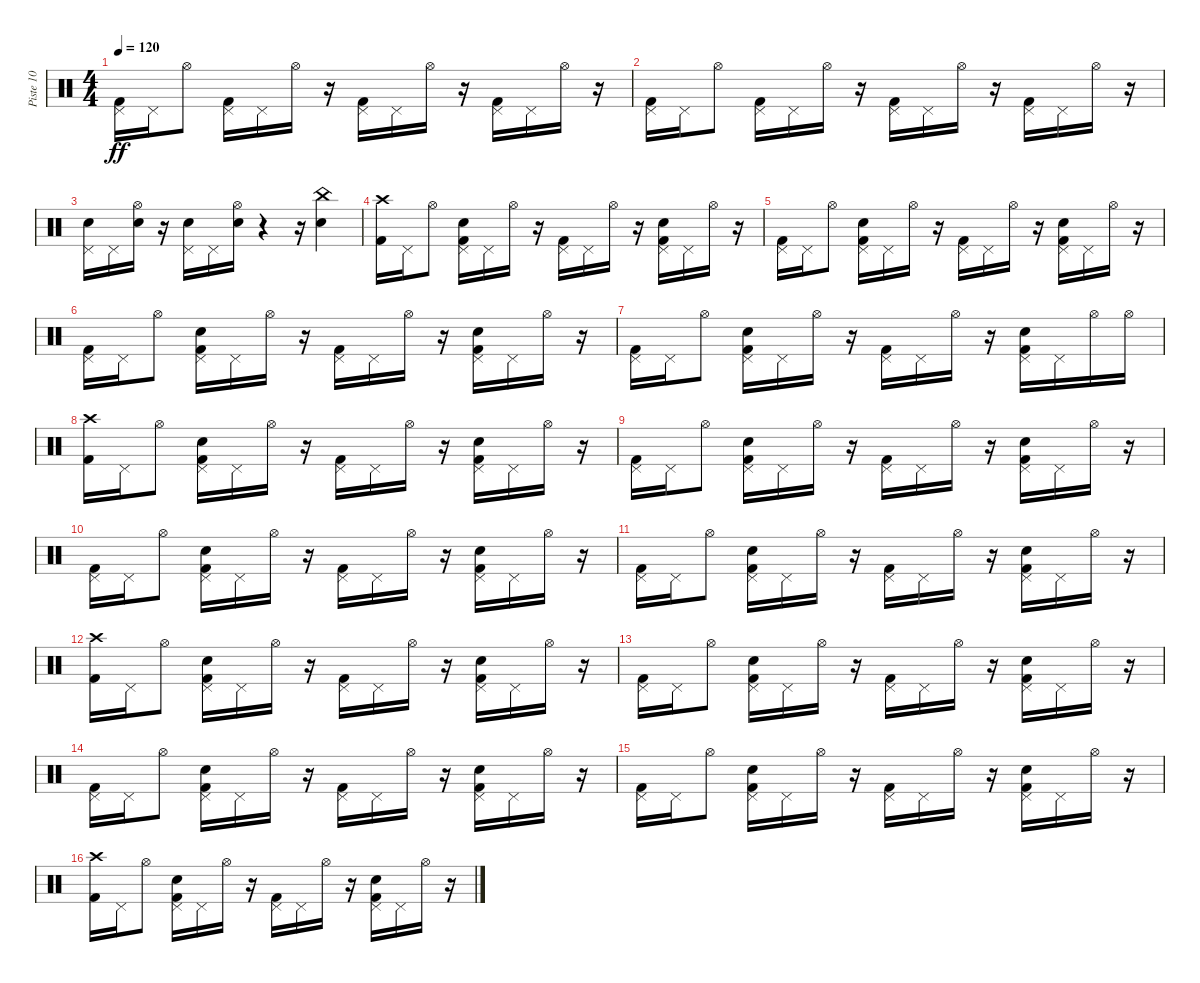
\track ("Piste 10" "Piste 10") {instrument percussion}
\staff {score}
\articulation defaults
\ts (4 4)
\tempo 120
\clef neutral
\ks c
("Kick (hit) 2" "Pedal Hi-Hat (hit)").16{dy ff} "Pedal Hi-Hat (hit)".16 "Hi-Hat (open)".8 ("Kick (hit) 2" "Pedal Hi-Hat (hit)").16 "Pedal Hi-Hat (hit)".16 "Hi-Hat (open)".16 r.16 ("Kick (hit) 2" "Pedal Hi-Hat (hit)").16 "Pedal Hi-Hat (hit)".16 "Hi-Hat (open)".16 r.16 ("Kick (hit) 2" "Pedal Hi-Hat (hit)").16 "Pedal Hi-Hat (hit)".16 "Hi-Hat (open)".16 r.16 |
("Kick (hit) 2" "Pedal Hi-Hat (hit)").16 "Pedal Hi-Hat (hit)".16 "Hi-Hat (open)".8 ("Kick (hit) 2" "Pedal Hi-Hat (hit)").16 "Pedal Hi-Hat (hit)".16 "Hi-Hat (open)".16 r.16 ("Kick (hit) 2" "Pedal Hi-Hat (hit)").16 "Pedal Hi-Hat (hit)".16 "Hi-Hat (open)".16 r.16 ("Kick (hit) 2" "Pedal Hi-Hat (hit)").16 "Pedal Hi-Hat (hit)".16 "Hi-Hat (open)".16 r.16 |
("Snare (hit) 2" "Pedal Hi-Hat (hit)").16 "Pedal Hi-Hat (hit)".16 ("Snare (hit) 2" "Hi-Hat (open)").16 r.16 ("Snare (hit) 2" "Pedal Hi-Hat (hit)").16 "Pedal Hi-Hat (hit)".16 ("Snare (hit) 2" "Hi-Hat (open)").16 r.4 r.16 ("China (hit)" "Snare (hit) 2").4 |
("Crash high (hit)" "Kick (hit) 2").16 "Pedal Hi-Hat (hit)".16 "Hi-Hat (open)".8 ("Snare (hit) 2" "Kick (hit) 2" "Pedal Hi-Hat (hit)").16 "Pedal Hi-Hat (hit)".16 "Hi-Hat (open)".16 r.16 ("Kick (hit) 2" "Pedal Hi-Hat (hit)").16 "Pedal Hi-Hat (hit)".16 "Hi-Hat (open)".16 r.16 ("Kick (hit) 2" "Snare (hit) 2" "Pedal Hi-Hat (hit)").16 "Pedal Hi-Hat (hit)".16 "Hi-Hat (open)".16 r.16 |
("Kick (hit) 2" "Pedal Hi-Hat (hit)").16 "Pedal Hi-Hat (hit)".16 "Hi-Hat (open)".8 ("Kick (hit) 2" "Snare (hit) 2" "Pedal Hi-Hat (hit)").16 "Pedal Hi-Hat (hit)".16 "Hi-Hat (open)".16 r.16 ("Kick (hit) 2" "Pedal Hi-Hat (hit)").16 "Pedal Hi-Hat (hit)".16 "Hi-Hat (open)".16 r.16 ("Kick (hit) 2" "Snare (hit) 2" "Pedal Hi-Hat (hit)").16 "Pedal Hi-Hat (hit)".16 "Hi-Hat (open)".16 r.16 |
("Kick (hit) 2" "Pedal Hi-Hat (hit)").16 "Pedal Hi-Hat (hit)".16 "Hi-Hat (open)".8 ("Kick (hit) 2" "Snare (hit) 2" "Pedal Hi-Hat (hit)").16 "Pedal Hi-Hat (hit)".16 "Hi-Hat (open)".16 r.16 ("Kick (hit) 2" "Pedal Hi-Hat (hit)").16 "Pedal Hi-Hat (hit)".16 "Hi-Hat (open)".16 r.16 ("Kick (hit) 2" "Snare (hit) 2" "Pedal Hi-Hat (hit)").16 "Pedal Hi-Hat (hit)".16 "Hi-Hat (open)".16 r.16 |
("Kick (hit) 2" "Pedal Hi-Hat (hit)").16 "Pedal Hi-Hat (hit)".16 "Hi-Hat (open)".8 ("Kick (hit) 2" "Snare (hit) 2" "Pedal Hi-Hat (hit)").16 "Pedal Hi-Hat (hit)".16 "Hi-Hat (open)".16 r.16 ("Kick (hit) 2" "Pedal Hi-Hat (hit)").16 "Pedal Hi-Hat (hit)".16 "Hi-Hat (open)".16 r.16 ("Kick (hit) 2" "Snare (hit) 2" "Pedal Hi-Hat (hit)").16 "Pedal Hi-Hat (hit)".16 "Hi-Hat (open)".16 "Hi-Hat (open)".16 |
("Crash high (hit)" "Kick (hit) 2").16 "Pedal Hi-Hat (hit)".16 "Hi-Hat (open)".8 ("Kick (hit) 2" "Snare (hit) 2" "Pedal Hi-Hat (hit)").16 "Pedal Hi-Hat (hit)".16 "Hi-Hat (open)".16 r.16 ("Kick (hit) 2" "Pedal Hi-Hat (hit)").16 "Pedal Hi-Hat (hit)".16 "Hi-Hat (open)".16 r.16 ("Kick (hit) 2" "Snare (hit) 2" "Pedal Hi-Hat (hit)").16 "Pedal Hi-Hat (hit)".16 "Hi-Hat (open)".16 r.16 |
("Kick (hit) 2" "Pedal Hi-Hat (hit)").16 "Pedal Hi-Hat (hit)".16 "Hi-Hat (open)".8 ("Kick (hit) 2" "Snare (hit) 2" "Pedal Hi-Hat (hit)").16 "Pedal Hi-Hat (hit)".16 "Hi-Hat (open)".16 r.16 ("Kick (hit) 2" "Pedal Hi-Hat (hit)").16 "Pedal Hi-Hat (hit)".16 "Hi-Hat (open)".16 r.16 ("Kick (hit) 2" "Snare (hit) 2" "Pedal Hi-Hat (hit)").16 "Pedal Hi-Hat (hit)".16 "Hi-Hat (open)".16 r.16 |
("Kick (hit) 2" "Pedal Hi-Hat (hit)").16 "Pedal Hi-Hat (hit)".16 "Hi-Hat (open)".8 ("Kick (hit) 2" "Snare (hit) 2" "Pedal Hi-Hat (hit)").16 "Pedal Hi-Hat (hit)".16 "Hi-Hat (open)".16 r.16 ("Kick (hit) 2" "Pedal Hi-Hat (hit)").16 "Pedal Hi-Hat (hit)".16 "Hi-Hat (open)".16 r.16 ("Kick (hit) 2" "Snare (hit) 2" "Pedal Hi-Hat (hit)").16 "Pedal Hi-Hat (hit)".16 "Hi-Hat (open)".16 r.16 |
("Kick (hit) 2" "Pedal Hi-Hat (hit)").16 "Pedal Hi-Hat (hit)".16 "Hi-Hat (open)".8 ("Kick (hit) 2" "Snare (hit) 2" "Pedal Hi-Hat (hit)").16 "Pedal Hi-Hat (hit)".16 "Hi-Hat (open)".16 r.16 ("Kick (hit) 2" "Pedal Hi-Hat (hit)").16 "Pedal Hi-Hat (hit)".16 "Hi-Hat (open)".16 r.16 ("Kick (hit) 2" "Snare (hit) 2" "Pedal Hi-Hat (hit)").16 "Pedal Hi-Hat (hit)".16 "Hi-Hat (open)".16 r.16 |
("Crash high (hit)" "Kick (hit) 2").16 "Pedal Hi-Hat (hit)".16 "Hi-Hat (open)".8 ("Kick (hit) 2" "Snare (hit) 2" "Pedal Hi-Hat (hit)").16 "Pedal Hi-Hat (hit)".16 "Hi-Hat (open)".16 r.16 ("Kick (hit) 2" "Pedal Hi-Hat (hit)").16 "Pedal Hi-Hat (hit)".16 "Hi-Hat (open)".16 r.16 ("Kick (hit) 2" "Snare (hit) 2" "Pedal Hi-Hat (hit)").16 "Pedal Hi-Hat (hit)".16 "Hi-Hat (open)".16 r.16 |
("Kick (hit) 2" "Pedal Hi-Hat (hit)").16 "Pedal Hi-Hat (hit)".16 "Hi-Hat (open)".8 ("Kick (hit) 2" "Snare (hit) 2" "Pedal Hi-Hat (hit)").16 "Pedal Hi-Hat (hit)".16 "Hi-Hat (open)".16 r.16 ("Kick (hit) 2" "Pedal Hi-Hat (hit)").16 "Pedal Hi-Hat (hit)".16 "Hi-Hat (open)".16 r.16 ("Kick (hit) 2" "Snare (hit) 2" "Pedal Hi-Hat (hit)").16 "Pedal Hi-Hat (hit)".16 "Hi-Hat (open)".16 r.16 |
("Kick (hit) 2" "Pedal Hi-Hat (hit)").16 "Pedal Hi-Hat (hit)".16 "Hi-Hat (open)".8 ("Kick (hit) 2" "Snare (hit) 2" "Pedal Hi-Hat (hit)").16 "Pedal Hi-Hat (hit)".16 "Hi-Hat (open)".16 r.16 ("Kick (hit) 2" "Pedal Hi-Hat (hit)").16 "Pedal Hi-Hat (hit)".16 "Hi-Hat (open)".16 r.16 ("Kick (hit) 2" "Snare (hit) 2" "Pedal Hi-Hat (hit)").16 "Pedal Hi-Hat (hit)".16 "Hi-Hat (open)".16 r.16 |
("Kick (hit) 2" "Pedal Hi-Hat (hit)").16 "Pedal Hi-Hat (hit)".16 "Hi-Hat (open)".8 ("Kick (hit) 2" "Snare (hit) 2" "Pedal Hi-Hat (hit)").16 "Pedal Hi-Hat (hit)".16 "Hi-Hat (open)".16 r.16 ("Kick (hit) 2" "Pedal Hi-Hat (hit)").16 "Pedal Hi-Hat (hit)".16 "Hi-Hat (open)".16 r.16 ("Kick (hit) 2" "Snare (hit) 2" "Pedal Hi-Hat (hit)").16 "Pedal Hi-Hat (hit)".16 "Hi-Hat (open)".16 r.16 |
("Crash high (hit)" "Kick (hit) 2").16 "Pedal Hi-Hat (hit)".16 "Hi-Hat (open)".8 ("Kick (hit) 2" "Snare (hit) 2" "Pedal Hi-Hat (hit)").16 "Pedal Hi-Hat (hit)".16 "Hi-Hat (open)".16 r.16 ("Kick (hit) 2" "Pedal Hi-Hat (hit)").16 "Pedal Hi-Hat (hit)".16 "Hi-Hat (open)".16 r.16 ("Kick (hit) 2" "Snare (hit) 2" "Pedal Hi-Hat (hit)").16 "Pedal Hi-Hat (hit)".16 "Hi-Hat (open)".16 r.16
